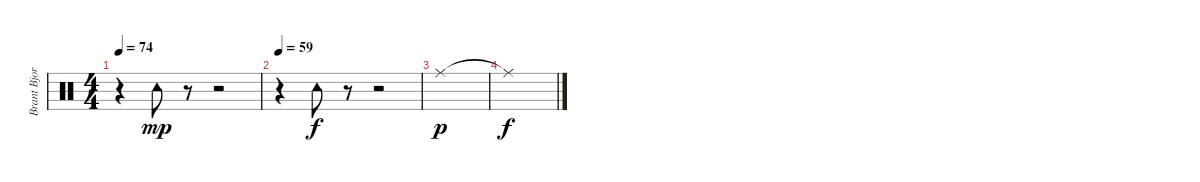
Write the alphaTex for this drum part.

\track ("Brant Bjork - Drums" "Brant Bjor") {instrument percussion}
\staff {score}
\articulation defaults
\ts (4 4)
\tempo 74
\clef neutral
\ks c
r.4{dy f} "Tambourine (hit)".8{dy mp} r.8 r.2 |
\tempo 59
r.4 "Tambourine (hit)".8{dy f} r.8 r.2 |
"Ride (middle)".1{dy p} |
"Ride (middle)"{t}.1{dy f}
